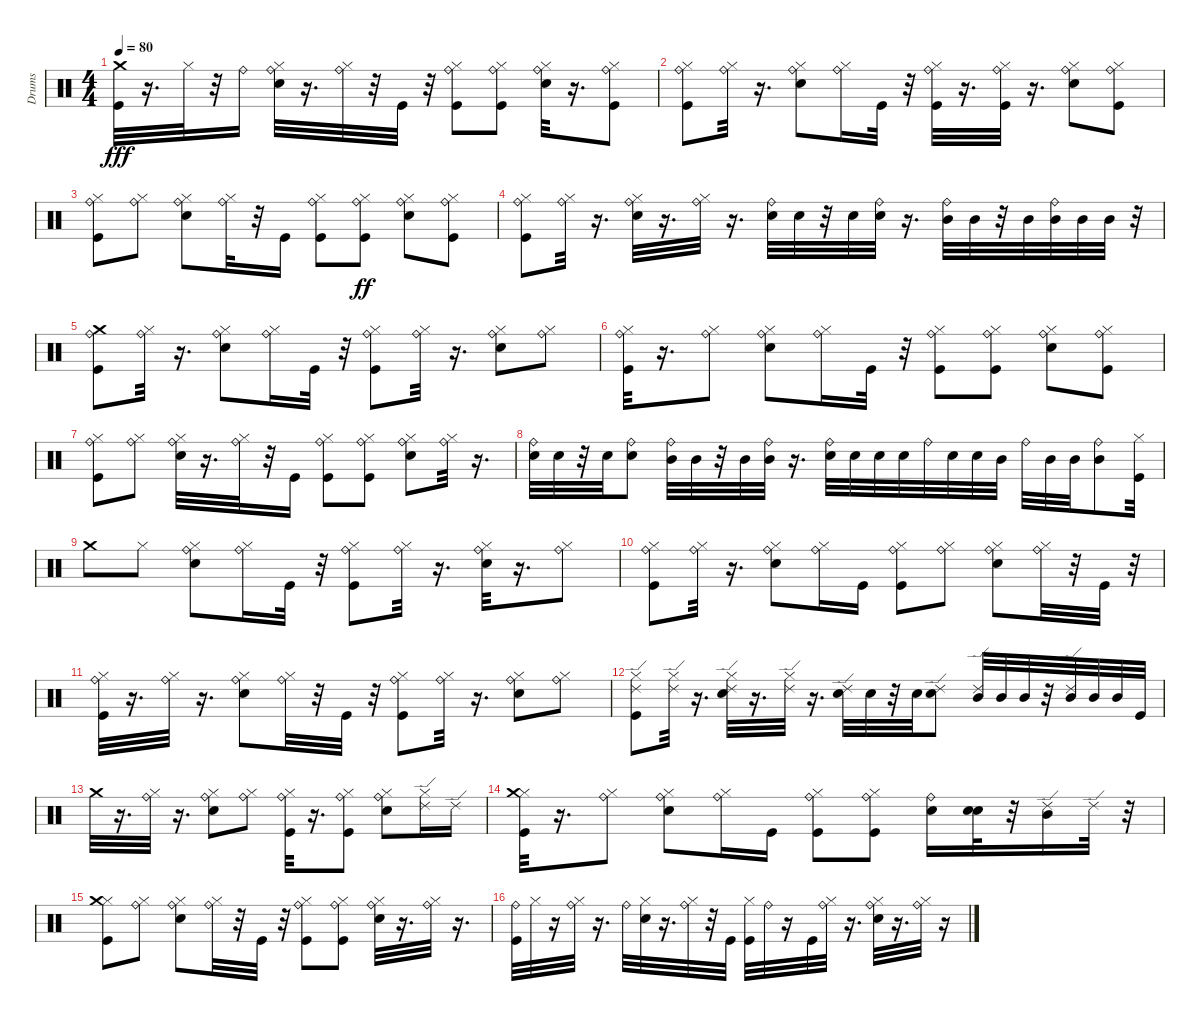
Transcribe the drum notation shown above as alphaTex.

\track ("Drums   " "Drums   ") {instrument percussion}
\staff {score}
\articulation defaults
\ts (4 4)
\tempo 80
\clef neutral
\ks c
("Kick (hit)" "Crash medium (hit)").32{dy fff} r.16{d} "Hi-Hat (closed)".32 r.32 "Ride (bell)".16 ("Snare (hit) 2" "Hi-Hat (closed)" "Ride (bell)").32 r.16{d} ("Hi-Hat (closed)" "Ride (bell)").32 r.32 "Kick (hit)".32 r.32 ("Kick (hit)" "Hi-Hat (closed)" "Ride (bell)").8 ("Kick (hit)" "Hi-Hat (closed)" "Ride (bell)").8 ("Snare (hit) 2" "Hi-Hat (closed)" "Ride (bell)").32 r.16{d} ("Kick (hit)" "Hi-Hat (closed)" "Ride (bell)").8 |
("Kick (hit)" "Hi-Hat (closed)" "Ride (bell)").8 ("Hi-Hat (closed)" "Ride (bell)").32 r.16{d} ("Snare (hit) 2" "Hi-Hat (closed)" "Ride (bell)").8 ("Hi-Hat (closed)" "Ride (bell)").16 "Kick (hit)".32 r.32 ("Kick (hit)" "Hi-Hat (closed)" "Ride (bell)").32 r.16{d} ("Kick (hit)" "Hi-Hat (closed)" "Ride (bell)").32 r.16{d} ("Snare (hit) 2" "Hi-Hat (closed)" "Ride (bell)").8 ("Kick (hit)" "Hi-Hat (closed)" "Ride (bell)").8 |
("Kick (hit)" "Hi-Hat (closed)" "Ride (bell)").8 ("Hi-Hat (closed)" "Ride (bell)").8 ("Snare (hit) 2" "Hi-Hat (closed)" "Ride (bell)").8 ("Hi-Hat (closed)" "Ride (bell)").32 r.32 "Kick (hit)".16 ("Kick (hit)" "Hi-Hat (closed)" "Ride (bell)").8 ("Kick (hit)" "Hi-Hat (closed)" "Ride (bell)").8{dy ff} ("Snare (hit) 2" "Hi-Hat (closed)" "Ride (bell)").8 ("Kick (hit)" "Hi-Hat (closed)" "Ride (bell)").8 |
("Kick (hit)" "Hi-Hat (closed)" "Ride (bell)").8 ("Ride (bell)" "Hi-Hat (closed)").32 r.16{d} ("Ride (bell)" "Hi-Hat (closed)" "Snare (hit) 2").32 r.16{d} ("Ride (bell)" "Hi-Hat (closed)").32 r.16{d} ("Ride (bell)" "Snare (hit) 2").32 "Snare (hit) 2".32 r.32 "Snare (hit) 2".32 ("Snare (hit) 2" "Ride (bell)").32 r.16{d} ("Mid Tom (hit)" "Ride (bell)").32 "Mid Tom (hit)".32 r.32 "Mid Tom (hit)".32 ("Mid Tom (hit)" "Ride (bell)").32 "Mid Tom (hit)".32 "Mid Tom (hit)".32 r.32 |
("Kick (hit)" "Ride (bell)" "Crash medium (hit)").8 ("Hi-Hat (closed)" "Ride (bell)").32 r.16{d} ("Snare (hit) 2" "Hi-Hat (closed)" "Ride (bell)").8 ("Hi-Hat (closed)" "Ride (bell)").16 "Kick (hit)".32 r.32 ("Kick (hit)" "Hi-Hat (closed)" "Ride (bell)").8 ("Hi-Hat (closed)" "Ride (bell)").32 r.16{d} ("Snare (hit) 2" "Hi-Hat (closed)" "Ride (bell)").8 ("Hi-Hat (closed)" "Ride (bell)").8 |
("Kick (hit)" "Hi-Hat (closed)" "Ride (bell)").32 r.16{d} ("Hi-Hat (closed)" "Ride (bell)").8 ("Snare (hit) 2" "Hi-Hat (closed)" "Ride (bell)").8 ("Hi-Hat (closed)" "Ride (bell)").16 "Kick (hit)".32 r.32 ("Kick (hit)" "Hi-Hat (closed)" "Ride (bell)").8 ("Kick (hit)" "Hi-Hat (closed)" "Ride (bell)").8 ("Snare (hit) 2" "Hi-Hat (closed)" "Ride (bell)").8 ("Kick (hit)" "Hi-Hat (closed)" "Ride (bell)").8 |
("Kick (hit)" "Hi-Hat (closed)" "Ride (bell)").8 ("Hi-Hat (closed)" "Ride (bell)").8 ("Snare (hit) 2" "Hi-Hat (closed)" "Ride (bell)").32 r.16{d} ("Hi-Hat (closed)" "Ride (bell)").32 r.32 "Kick (hit)".16 ("Kick (hit)" "Hi-Hat (closed)" "Ride (bell)").8 ("Kick (hit)" "Hi-Hat (closed)" "Ride (bell)").8 ("Snare (hit) 2" "Hi-Hat (closed)" "Ride (bell)").8 ("Hi-Hat (closed)" "Ride (bell)").32 r.16{d} |
("Snare (hit) 2" "Ride (bell)").32 "Snare (hit) 2".32 r.32 "Snare (hit) 2".32 ("Snare (hit) 2" "Ride (bell)").8 ("Mid Tom (hit)" "Ride (bell)").32 "Mid Tom (hit)".32 r.32 "Mid Tom (hit)".32 ("Mid Tom (hit)" "Ride (bell)").32 r.16{d} ("Snare (hit) 2" "Ride (bell)").32 "Snare (hit) 2".32 "Snare (hit) 2".32 "Snare (hit) 2".32 "Ride (bell)".32 "Snare (hit) 2".32 "Snare (hit) 2".32 "Mid Tom (hit)".32 "Ride (bell)".32 "Mid Tom (hit)".32 "Mid Tom (hit)".32 ("Mid Tom (hit)" "Ride (bell)").8 ("Hi-Hat (closed)" "Kick (hit)").32 |
"Crash medium (hit)".8 "Hi-Hat (closed)".8 ("Snare (hit) 2" "Hi-Hat (closed)" "Ride (bell)").8 ("Hi-Hat (closed)" "Ride (bell)").16 "Kick (hit)".32 r.32 ("Kick (hit)" "Hi-Hat (closed)" "Ride (bell)").8 ("Hi-Hat (closed)" "Ride (bell)").32 r.16{d} ("Snare (hit) 2" "Hi-Hat (closed)" "Ride (bell)").32 r.16{d} ("Hi-Hat (closed)" "Ride (bell)").8 |
("Kick (hit)" "Hi-Hat (closed)" "Ride (bell)").8 ("Hi-Hat (closed)" "Ride (bell)").32 r.16{d} ("Snare (hit) 2" "Hi-Hat (closed)" "Ride (bell)").8 ("Hi-Hat (closed)" "Ride (bell)").16 "Kick (hit)".16 ("Kick (hit)" "Hi-Hat (closed)" "Ride (bell)").8 ("Hi-Hat (closed)" "Ride (bell)").8 ("Snare (hit) 2" "Hi-Hat (closed)" "Ride (bell)").8 ("Hi-Hat (closed)" "Ride (bell)").32 r.32 "Kick (hit)".32 r.32 |
("Kick (hit)" "Hi-Hat (closed)" "Ride (bell)").32 r.16{d} ("Hi-Hat (closed)" "Ride (bell)").32 r.16{d} ("Snare (hit) 2" "Hi-Hat (closed)" "Ride (bell)").8 ("Hi-Hat (closed)" "Ride (bell)").32 r.32 "Kick (hit)".32 r.32 ("Kick (hit)" "Hi-Hat (closed)" "Ride (bell)").8 ("Hi-Hat (closed)" "Ride (bell)").32 r.16{d} ("Snare (hit) 2" "Hi-Hat (closed)" "Ride (bell)").8 ("Hi-Hat (closed)" "Ride (bell)").8 |
("Kick (hit)" "Ride (edge) 2" "Hi-Hat (closed)").8 ("Hi-Hat (closed)" "Ride (edge) 2").32 r.16{d} ("Ride (edge) 2" "Hi-Hat (closed)" "Snare (hit) 2").32 r.16{d} ("Ride (edge) 2" "Hi-Hat (closed)").32 r.16{d} ("Snare (hit) 2" "Ride (edge) 2").32 "Snare (hit) 2".32 r.32 "Snare (hit) 2".32 ("Snare (hit) 2" "Ride (edge) 2").8 ("Mid Tom (hit)" "Ride (edge) 2").32 "Mid Tom (hit)".32 "Mid Tom (hit)".32 r.32 ("Mid Tom (hit)" "Ride (edge) 2").32 "Mid Tom (hit)".32 "Mid Tom (hit)".32 "Kick (hit)".32 |
"Crash medium (hit)".32 r.16{d} ("Hi-Hat (closed)" "Ride (bell)").32 r.16{d} ("Snare (hit) 2" "Hi-Hat (closed)" "Ride (bell)").8 ("Hi-Hat (closed)" "Ride (bell)").8 ("Kick (hit)" "Hi-Hat (closed)" "Ride (bell)").32 r.16{d} ("Kick (hit)" "Hi-Hat (closed)" "Ride (bell)").8 ("Snare (hit) 2" "Hi-Hat (closed)" "Ride (bell)").8 ("Hi-Hat (closed)" "Ride (edge) 2").16 "Ride (edge) 2".16 |
("Kick (hit)" "Hi-Hat (closed)" "Crash medium (hit)").32 r.16{d} ("Hi-Hat (closed)" "Ride (bell)").8 ("Snare (hit) 2" "Hi-Hat (closed)" "Ride (bell)").8 ("Hi-Hat (closed)" "Ride (bell)").16 "Kick (hit)".16 ("Kick (hit)" "Hi-Hat (closed)" "Ride (bell)").8 ("Kick (hit)" "Hi-Hat (closed)" "Ride (bell)").8 ("Snare (hit) 2" "Ride (bell)").16 ("Snare (hit) 2" "Snare (hit) 2").32 r.32 ("Mid Tom (hit)" "Ride (edge) 2").16 "Ride (edge) 2".32 r.32 |
("Kick (hit)" "Hi-Hat (closed)" "Crash medium (hit)").8 ("Hi-Hat (closed)" "Ride (bell)").8 ("Snare (hit) 2" "Hi-Hat (closed)" "Ride (bell)").8 ("Hi-Hat (closed)" "Ride (bell)").32 r.32 "Kick (hit)".32 r.32 ("Kick (hit)" "Hi-Hat (closed)" "Ride (bell)").8 ("Kick (hit)" "Hi-Hat (closed)" "Ride (bell)").8 ("Snare (hit) 2" "Hi-Hat (closed)" "Ride (bell)").32 r.16{d} ("Hi-Hat (closed)" "Ride (bell)").32 r.16{d} |
("Ride (bell)" "Kick (hit)").32 "Hi-Hat (closed)".32 r.16 ("Ride (bell)" "Hi-Hat (closed)").32 r.16{d} "Ride (bell)".32 ("Hi-Hat (closed)" "Snare (hit) 2").32 r.16{d} ("Ride (bell)" "Hi-Hat (closed)").32 r.32 "Kick (hit)".32 ("Kick (hit)" "Hi-Hat (closed)").32 "Ride (bell)".32 r.16 "Kick (hit)".32 ("Hi-Hat (closed)" "Ride (bell)").32 r.16{d} ("Hi-Hat (closed)" "Snare (hit) 2" "Ride (bell)").32 r.16{d} ("Hi-Hat (closed)" "Ride (bell)").32 r.16
